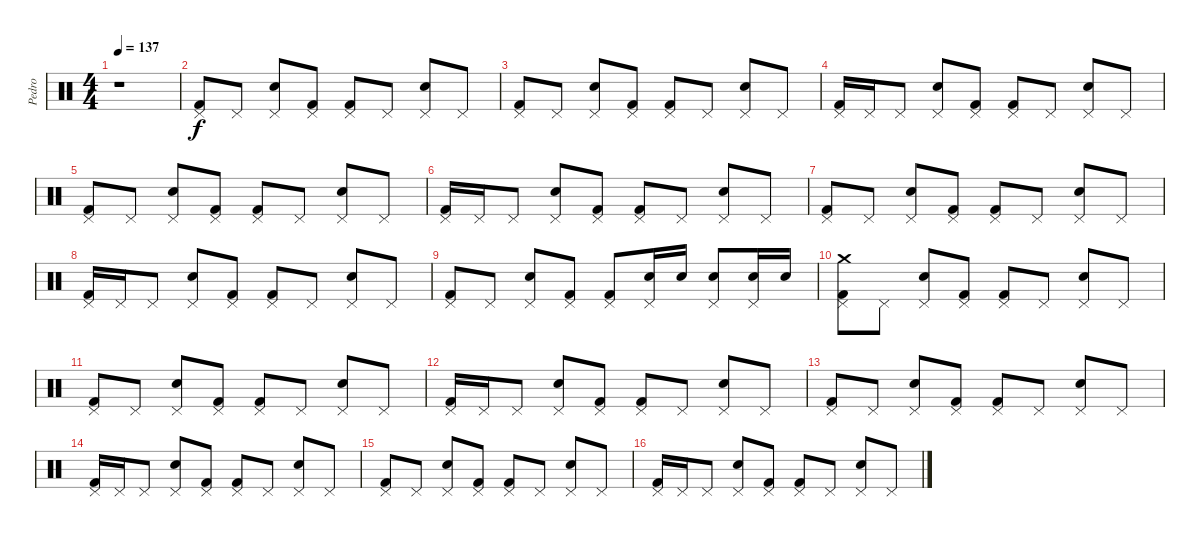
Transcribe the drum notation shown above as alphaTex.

\track ("Pedro" "Pedro") {instrument percussion}
\staff {score}
\articulation defaults
\ts (4 4)
\tempo 137
\clef neutral
\ks c
r.1{dy f} |
("Pedal Hi-Hat (hit)" "Kick (hit) 2").8 "Pedal Hi-Hat (hit)".8 ("Pedal Hi-Hat (hit)" "Snare (hit) 2").8 ("Pedal Hi-Hat (hit)" "Kick (hit) 2").8 ("Pedal Hi-Hat (hit)" "Kick (hit) 2").8 "Pedal Hi-Hat (hit)".8 ("Pedal Hi-Hat (hit)" "Snare (hit) 2").8 "Pedal Hi-Hat (hit)".8 |
("Pedal Hi-Hat (hit)" "Kick (hit) 2").8 "Pedal Hi-Hat (hit)".8 ("Pedal Hi-Hat (hit)" "Snare (hit) 2").8 ("Pedal Hi-Hat (hit)" "Kick (hit) 2").8 ("Pedal Hi-Hat (hit)" "Kick (hit) 2").8 "Pedal Hi-Hat (hit)".8 ("Pedal Hi-Hat (hit)" "Snare (hit) 2").8 "Pedal Hi-Hat (hit)".8 |
("Pedal Hi-Hat (hit)" "Kick (hit) 2").16 "Pedal Hi-Hat (hit)".16 "Pedal Hi-Hat (hit)".8 ("Pedal Hi-Hat (hit)" "Snare (hit) 2").8 ("Pedal Hi-Hat (hit)" "Kick (hit) 2").8 ("Pedal Hi-Hat (hit)" "Kick (hit) 2").8 "Pedal Hi-Hat (hit)".8 ("Pedal Hi-Hat (hit)" "Snare (hit) 2").8 "Pedal Hi-Hat (hit)".8 |
("Kick (hit) 2" "Pedal Hi-Hat (hit)").8 "Pedal Hi-Hat (hit)".8 ("Snare (hit) 2" "Pedal Hi-Hat (hit)").8 ("Kick (hit) 2" "Pedal Hi-Hat (hit)").8 ("Kick (hit) 2" "Pedal Hi-Hat (hit)").8 "Pedal Hi-Hat (hit)".8 ("Snare (hit) 2" "Pedal Hi-Hat (hit)").8 "Pedal Hi-Hat (hit)".8 |
("Pedal Hi-Hat (hit)" "Kick (hit) 2").16 "Pedal Hi-Hat (hit)".16 "Pedal Hi-Hat (hit)".8 ("Pedal Hi-Hat (hit)" "Snare (hit) 2").8 ("Pedal Hi-Hat (hit)" "Kick (hit) 2").8 ("Pedal Hi-Hat (hit)" "Kick (hit) 2").8 "Pedal Hi-Hat (hit)".8 ("Pedal Hi-Hat (hit)" "Snare (hit) 2").8 "Pedal Hi-Hat (hit)".8 |
("Kick (hit) 2" "Pedal Hi-Hat (hit)").8 "Pedal Hi-Hat (hit)".8 ("Snare (hit) 2" "Pedal Hi-Hat (hit)").8 ("Kick (hit) 2" "Pedal Hi-Hat (hit)").8 ("Kick (hit) 2" "Pedal Hi-Hat (hit)").8 "Pedal Hi-Hat (hit)".8 ("Snare (hit) 2" "Pedal Hi-Hat (hit)").8 "Pedal Hi-Hat (hit)".8 |
("Pedal Hi-Hat (hit)" "Kick (hit) 2").16 "Pedal Hi-Hat (hit)".16 "Pedal Hi-Hat (hit)".8 ("Pedal Hi-Hat (hit)" "Snare (hit) 2").8 ("Pedal Hi-Hat (hit)" "Kick (hit) 2").8 ("Pedal Hi-Hat (hit)" "Kick (hit) 2").8 "Pedal Hi-Hat (hit)".8 ("Pedal Hi-Hat (hit)" "Snare (hit) 2").8 "Pedal Hi-Hat (hit)".8 |
("Kick (hit) 2" "Pedal Hi-Hat (hit)").8 "Pedal Hi-Hat (hit)".8 ("Snare (hit) 2" "Pedal Hi-Hat (hit)").8 ("Kick (hit) 2" "Pedal Hi-Hat (hit)").8 ("Kick (hit) 2" "Pedal Hi-Hat (hit)").8 ("Snare (hit) 2" "Pedal Hi-Hat (hit)").16 "Snare (hit) 2".16 ("Snare (hit) 2" "Pedal Hi-Hat (hit)").8 ("Snare (hit) 2" "Pedal Hi-Hat (hit)").16 "Snare (hit) 2".16 |
("Crash medium (hit)" "Pedal Hi-Hat (hit)" "Kick (hit) 2").8 "Pedal Hi-Hat (hit)".8 ("Pedal Hi-Hat (hit)" "Snare (hit) 2").8 ("Pedal Hi-Hat (hit)" "Kick (hit) 2").8 ("Pedal Hi-Hat (hit)" "Kick (hit) 2").8 "Pedal Hi-Hat (hit)".8 ("Pedal Hi-Hat (hit)" "Snare (hit) 2").8 "Pedal Hi-Hat (hit)".8 |
("Pedal Hi-Hat (hit)" "Kick (hit) 2").8 "Pedal Hi-Hat (hit)".8 ("Pedal Hi-Hat (hit)" "Snare (hit) 2").8 ("Pedal Hi-Hat (hit)" "Kick (hit) 2").8 ("Pedal Hi-Hat (hit)" "Kick (hit) 2").8 "Pedal Hi-Hat (hit)".8 ("Pedal Hi-Hat (hit)" "Snare (hit) 2").8 "Pedal Hi-Hat (hit)".8 |
("Pedal Hi-Hat (hit)" "Kick (hit) 2").16 "Pedal Hi-Hat (hit)".16 "Pedal Hi-Hat (hit)".8 ("Pedal Hi-Hat (hit)" "Snare (hit) 2").8 ("Pedal Hi-Hat (hit)" "Kick (hit) 2").8 ("Pedal Hi-Hat (hit)" "Kick (hit) 2").8 "Pedal Hi-Hat (hit)".8 ("Pedal Hi-Hat (hit)" "Snare (hit) 2").8 "Pedal Hi-Hat (hit)".8 |
("Pedal Hi-Hat (hit)" "Kick (hit) 2").8 "Pedal Hi-Hat (hit)".8 ("Pedal Hi-Hat (hit)" "Snare (hit) 2").8 ("Pedal Hi-Hat (hit)" "Kick (hit) 2").8 ("Pedal Hi-Hat (hit)" "Kick (hit) 2").8 "Pedal Hi-Hat (hit)".8 ("Pedal Hi-Hat (hit)" "Snare (hit) 2").8 "Pedal Hi-Hat (hit)".8 |
("Pedal Hi-Hat (hit)" "Kick (hit) 2").16 "Pedal Hi-Hat (hit)".16 "Pedal Hi-Hat (hit)".8 ("Pedal Hi-Hat (hit)" "Snare (hit) 2").8 ("Pedal Hi-Hat (hit)" "Kick (hit) 2").8 ("Pedal Hi-Hat (hit)" "Kick (hit) 2").8 "Pedal Hi-Hat (hit)".8 ("Pedal Hi-Hat (hit)" "Snare (hit) 2").8 "Pedal Hi-Hat (hit)".8 |
("Kick (hit) 2" "Pedal Hi-Hat (hit)").8 "Pedal Hi-Hat (hit)".8 ("Snare (hit) 2" "Pedal Hi-Hat (hit)").8 ("Kick (hit) 2" "Pedal Hi-Hat (hit)").8 ("Kick (hit) 2" "Pedal Hi-Hat (hit)").8 "Pedal Hi-Hat (hit)".8 ("Snare (hit) 2" "Pedal Hi-Hat (hit)").8 "Pedal Hi-Hat (hit)".8 |
("Pedal Hi-Hat (hit)" "Kick (hit) 2").16 "Pedal Hi-Hat (hit)".16 "Pedal Hi-Hat (hit)".8 ("Pedal Hi-Hat (hit)" "Snare (hit) 2").8 ("Pedal Hi-Hat (hit)" "Kick (hit) 2").8 ("Pedal Hi-Hat (hit)" "Kick (hit) 2").8 "Pedal Hi-Hat (hit)".8 ("Pedal Hi-Hat (hit)" "Snare (hit) 2").8 "Pedal Hi-Hat (hit)".8
